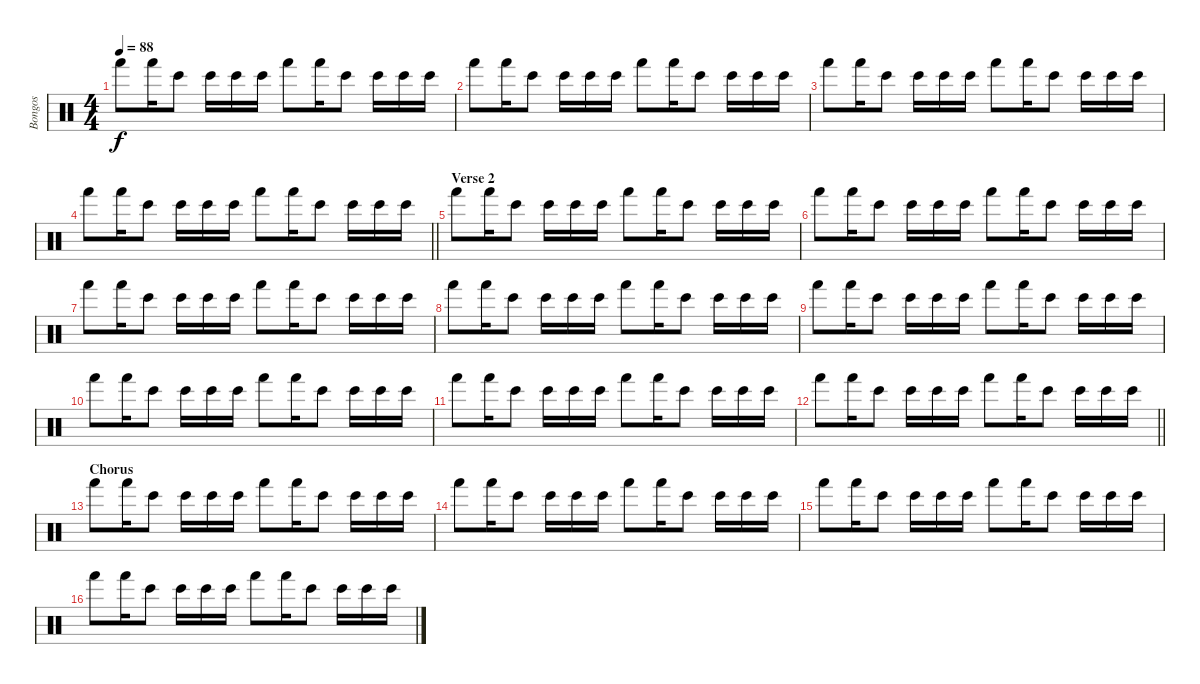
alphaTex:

\track ("Bongos" "Bongos") {instrument percussion}
\staff {score}
\articulation defaults
\ts (4 4)
\tempo 88
\clef neutral
\ks c "Hand (hit)".8{dy f} "Hand (hit)".16 "Bongo High (hit)".8 "Bongo High (hit)".16 "Bongo High (hit)".16 "Bongo High (hit)".16 "Hand (hit)".8 "Hand (hit)".16 "Bongo High (hit)".8 "Bongo High (hit)".16 "Bongo High (hit)".16 "Bongo High (hit)".16
|
"Hand (hit)".8 "Hand (hit)".16 "Bongo High (hit)".8 "Bongo High (hit)".16 "Bongo High (hit)".16 "Bongo High (hit)".16 "Hand (hit)".8 "Hand (hit)".16 "Bongo High (hit)".8 "Bongo High (hit)".16 "Bongo High (hit)".16 "Bongo High (hit)".16 |
"Hand (hit)".8 "Hand (hit)".16 "Bongo High (hit)".8 "Bongo High (hit)".16 "Bongo High (hit)".16 "Bongo High (hit)".16 "Hand (hit)".8 "Hand (hit)".16 "Bongo High (hit)".8 "Bongo High (hit)".16 "Bongo High (hit)".16 "Bongo High (hit)".16 |
\barLineRight lightlight "Hand (hit)".8 "Hand (hit)".16 "Bongo High (hit)".8 "Bongo High (hit)".16 "Bongo High (hit)".16 "Bongo High (hit)".16 "Hand (hit)".8 "Hand (hit)".16 "Bongo High (hit)".8 "Bongo High (hit)".16 "Bongo High (hit)".16 "Bongo High (hit)".16
|
\section ("" "Verse 2")
"Hand (hit)".8 "Hand (hit)".16 "Bongo High (hit)".8 "Bongo High (hit)".16 "Bongo High (hit)".16 "Bongo High (hit)".16 "Hand (hit)".8 "Hand (hit)".16 "Bongo High (hit)".8 "Bongo High (hit)".16 "Bongo High (hit)".16 "Bongo High (hit)".16 |
"Hand (hit)".8 "Hand (hit)".16 "Bongo High (hit)".8 "Bongo High (hit)".16 "Bongo High (hit)".16 "Bongo High (hit)".16 "Hand (hit)".8 "Hand (hit)".16 "Bongo High (hit)".8 "Bongo High (hit)".16 "Bongo High (hit)".16 "Bongo High (hit)".16 |
"Hand (hit)".8 "Hand (hit)".16 "Bongo High (hit)".8 "Bongo High (hit)".16 "Bongo High (hit)".16 "Bongo High (hit)".16 "Hand (hit)".8 "Hand (hit)".16 "Bongo High (hit)".8 "Bongo High (hit)".16 "Bongo High (hit)".16 "Bongo High (hit)".16 |
"Hand (hit)".8 "Hand (hit)".16 "Bongo High (hit)".8 "Bongo High (hit)".16 "Bongo High (hit)".16 "Bongo High (hit)".16 "Hand (hit)".8 "Hand (hit)".16 "Bongo High (hit)".8 "Bongo High (hit)".16 "Bongo High (hit)".16 "Bongo High (hit)".16 |
"Hand (hit)".8 "Hand (hit)".16 "Bongo High (hit)".8 "Bongo High (hit)".16 "Bongo High (hit)".16 "Bongo High (hit)".16 "Hand (hit)".8 "Hand (hit)".16 "Bongo High (hit)".8 "Bongo High (hit)".16 "Bongo High (hit)".16 "Bongo High (hit)".16 |
"Hand (hit)".8 "Hand (hit)".16 "Bongo High (hit)".8 "Bongo High (hit)".16 "Bongo High (hit)".16 "Bongo High (hit)".16 "Hand (hit)".8 "Hand (hit)".16 "Bongo High (hit)".8 "Bongo High (hit)".16 "Bongo High (hit)".16 "Bongo High (hit)".16 |
"Hand (hit)".8 "Hand (hit)".16 "Bongo High (hit)".8 "Bongo High (hit)".16 "Bongo High (hit)".16 "Bongo High (hit)".16 "Hand (hit)".8 "Hand (hit)".16 "Bongo High (hit)".8 "Bongo High (hit)".16 "Bongo High (hit)".16 "Bongo High (hit)".16 |
\barLineRight lightlight "Hand (hit)".8 "Hand (hit)".16 "Bongo High (hit)".8 "Bongo High (hit)".16 "Bongo High (hit)".16 "Bongo High (hit)".16 "Hand (hit)".8 "Hand (hit)".16 "Bongo High (hit)".8 "Bongo High (hit)".16 "Bongo High (hit)".16 "Bongo High (hit)".16
|
\section ("" "Chorus")
"Hand (hit)".8 "Hand (hit)".16 "Bongo High (hit)".8 "Bongo High (hit)".16 "Bongo High (hit)".16 "Bongo High (hit)".16 "Hand (hit)".8 "Hand (hit)".16 "Bongo High (hit)".8 "Bongo High (hit)".16 "Bongo High (hit)".16 "Bongo High (hit)".16 |
"Hand (hit)".8 "Hand (hit)".16 "Bongo High (hit)".8 "Bongo High (hit)".16 "Bongo High (hit)".16 "Bongo High (hit)".16 "Hand (hit)".8 "Hand (hit)".16 "Bongo High (hit)".8 "Bongo High (hit)".16 "Bongo High (hit)".16 "Bongo High (hit)".16 |
"Hand (hit)".8 "Hand (hit)".16 "Bongo High (hit)".8 "Bongo High (hit)".16 "Bongo High (hit)".16 "Bongo High (hit)".16 "Hand (hit)".8 "Hand (hit)".16 "Bongo High (hit)".8 "Bongo High (hit)".16 "Bongo High (hit)".16 "Bongo High (hit)".16 |
"Hand (hit)".8 "Hand (hit)".16 "Bongo High (hit)".8 "Bongo High (hit)".16 "Bongo High (hit)".16 "Bongo High (hit)".16 "Hand (hit)".8 "Hand (hit)".16 "Bongo High (hit)".8 "Bongo High (hit)".16 "Bongo High (hit)".16 "Bongo High (hit)".16
